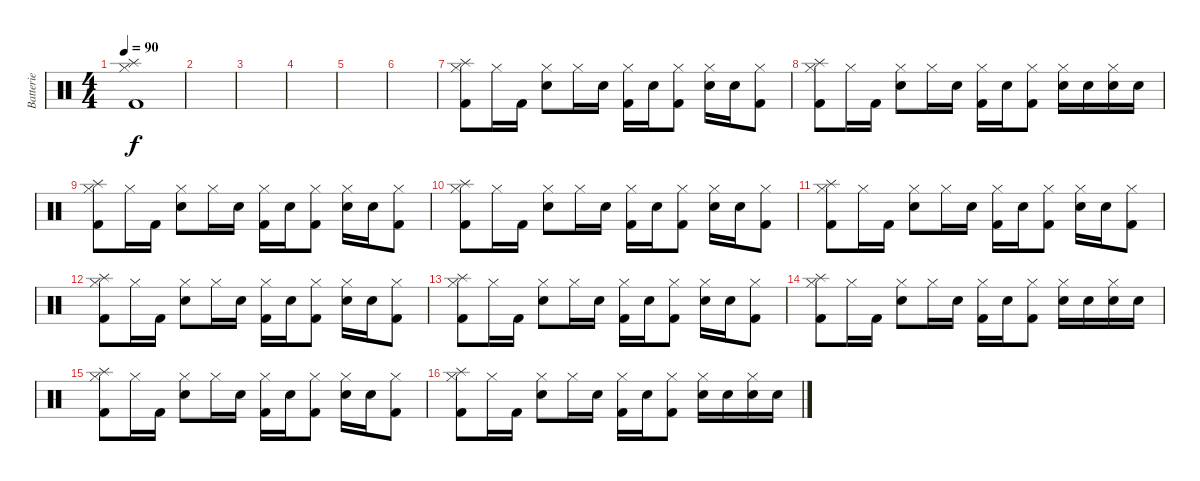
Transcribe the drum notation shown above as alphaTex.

\track ("Batterie" "Batterie") {instrument percussion}
\staff {score}
\articulation defaults
\ts (4 4)
\tempo 90
\clef neutral
\ks c
("Splash (hit)" "Hi-Hat (closed)" "Kick (hit) 2").1{dy f} |
|
|
|
|
|
("Splash (hit)" "Hi-Hat (closed)" "Kick (hit) 2").8 "Hi-Hat (closed)".16 "Kick (hit) 2".16 ("Hi-Hat (closed)" "Snare (hit) 2").8 "Hi-Hat (closed)".16 "Snare (hit) 2".16 ("Hi-Hat (closed)" "Kick (hit) 2").16 "Snare (hit) 2".16 ("Hi-Hat (closed)" "Kick (hit) 2").8 ("Hi-Hat (closed)" "Snare (hit) 2").16 "Snare (hit) 2".16 ("Hi-Hat (closed)" "Kick (hit) 2").8 |
("Splash (hit)" "Hi-Hat (closed)" "Kick (hit) 2").8 "Hi-Hat (closed)".16 "Kick (hit) 2".16 ("Hi-Hat (closed)" "Snare (hit) 2").8 "Hi-Hat (closed)".16 "Snare (hit) 2".16 ("Hi-Hat (closed)" "Kick (hit) 2").16 "Snare (hit) 2".16 ("Hi-Hat (closed)" "Kick (hit) 2").8 ("Hi-Hat (closed)" "Snare (hit) 2").16 "Snare (hit) 2".16 ("Hi-Hat (closed)" "Snare (hit) 2").16 "Snare (hit) 2".16 |
("Splash (hit)" "Hi-Hat (closed)" "Kick (hit) 2").8 "Hi-Hat (closed)".16 "Kick (hit) 2".16 ("Hi-Hat (closed)" "Snare (hit) 2").8 "Hi-Hat (closed)".16 "Snare (hit) 2".16 ("Hi-Hat (closed)" "Kick (hit) 2").16 "Snare (hit) 2".16 ("Hi-Hat (closed)" "Kick (hit) 2").8 ("Hi-Hat (closed)" "Snare (hit) 2").16 "Snare (hit) 2".16 ("Hi-Hat (closed)" "Kick (hit) 2").8 |
("Splash (hit)" "Hi-Hat (closed)" "Kick (hit) 2").8 "Hi-Hat (closed)".16 "Kick (hit) 2".16 ("Hi-Hat (closed)" "Snare (hit) 2").8 "Hi-Hat (closed)".16 "Snare (hit) 2".16 ("Hi-Hat (closed)" "Kick (hit) 2").16 "Snare (hit) 2".16 ("Hi-Hat (closed)" "Kick (hit) 2").8 ("Hi-Hat (closed)" "Snare (hit) 2").16 "Snare (hit) 2".16 ("Hi-Hat (closed)" "Kick (hit) 2").8 |
("Splash (hit)" "Hi-Hat (closed)" "Kick (hit) 2").8 "Hi-Hat (closed)".16 "Kick (hit) 2".16 ("Hi-Hat (closed)" "Snare (hit) 2").8 "Hi-Hat (closed)".16 "Snare (hit) 2".16 ("Hi-Hat (closed)" "Kick (hit) 2").16 "Snare (hit) 2".16 ("Hi-Hat (closed)" "Kick (hit) 2").8 ("Hi-Hat (closed)" "Snare (hit) 2").16 "Snare (hit) 2".16 ("Hi-Hat (closed)" "Kick (hit) 2").8 |
("Splash (hit)" "Hi-Hat (closed)" "Kick (hit) 2").8 "Hi-Hat (closed)".16 "Kick (hit) 2".16 ("Hi-Hat (closed)" "Snare (hit) 2").8 "Hi-Hat (closed)".16 "Snare (hit) 2".16 ("Hi-Hat (closed)" "Kick (hit) 2").16 "Snare (hit) 2".16 ("Hi-Hat (closed)" "Kick (hit) 2").8 ("Hi-Hat (closed)" "Snare (hit) 2").16 "Snare (hit) 2".16 ("Hi-Hat (closed)" "Kick (hit) 2").8 |
("Splash (hit)" "Hi-Hat (closed)" "Kick (hit) 2").8 "Hi-Hat (closed)".16 "Kick (hit) 2".16 ("Hi-Hat (closed)" "Snare (hit) 2").8 "Hi-Hat (closed)".16 "Snare (hit) 2".16 ("Hi-Hat (closed)" "Kick (hit) 2").16 "Snare (hit) 2".16 ("Hi-Hat (closed)" "Kick (hit) 2").8 ("Hi-Hat (closed)" "Snare (hit) 2").16 "Snare (hit) 2".16 ("Hi-Hat (closed)" "Kick (hit) 2").8 |
("Splash (hit)" "Hi-Hat (closed)" "Kick (hit) 2").8 "Hi-Hat (closed)".16 "Kick (hit) 2".16 ("Hi-Hat (closed)" "Snare (hit) 2").8 "Hi-Hat (closed)".16 "Snare (hit) 2".16 ("Hi-Hat (closed)" "Kick (hit) 2").16 "Snare (hit) 2".16 ("Hi-Hat (closed)" "Kick (hit) 2").8 ("Hi-Hat (closed)" "Snare (hit) 2").16 "Snare (hit) 2".16 ("Hi-Hat (closed)" "Snare (hit) 2").16 "Snare (hit) 2".16 |
("Splash (hit)" "Hi-Hat (closed)" "Kick (hit) 2").8 "Hi-Hat (closed)".16 "Kick (hit) 2".16 ("Hi-Hat (closed)" "Snare (hit) 2").8 "Hi-Hat (closed)".16 "Snare (hit) 2".16 ("Hi-Hat (closed)" "Kick (hit) 2").16 "Snare (hit) 2".16 ("Hi-Hat (closed)" "Kick (hit) 2").8 ("Hi-Hat (closed)" "Snare (hit) 2").16 "Snare (hit) 2".16 ("Hi-Hat (closed)" "Kick (hit) 2").8 |
("Splash (hit)" "Hi-Hat (closed)" "Kick (hit) 2").8 "Hi-Hat (closed)".16 "Kick (hit) 2".16 ("Hi-Hat (closed)" "Snare (hit) 2").8 "Hi-Hat (closed)".16 "Snare (hit) 2".16 ("Hi-Hat (closed)" "Kick (hit) 2").16 "Snare (hit) 2".16 ("Hi-Hat (closed)" "Kick (hit) 2").8 ("Hi-Hat (closed)" "Snare (hit) 2").16 "Snare (hit) 2".16 ("Hi-Hat (closed)" "Snare (hit) 2").16 "Snare (hit) 2".16
